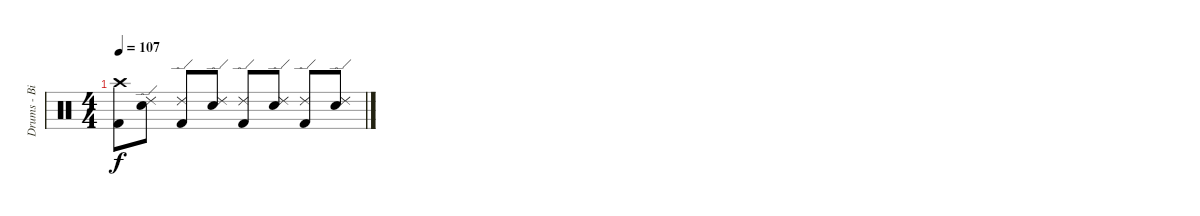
\track ("Drums - Bill Stevenson" "Drums - Bi") {instrument percussion}
\staff {score}
\articulation defaults
\ts (4 4)
\tempo 107
\clef neutral
\ks c
("Crash high (hit)" "Kick (hit) 2").8{dy f volume 0} ("Ride (edge) 2" "Electric Snare (hit)").8 ("Ride (edge) 2" "Kick (hit) 2").8 ("Ride (edge) 2" "Electric Snare (hit)").8 ("Ride (edge) 2" "Kick (hit) 2").8 ("Ride (edge) 2" "Electric Snare (hit)").8 ("Ride (edge) 2" "Kick (hit) 2").8 ("Ride (edge) 2" "Electric Snare (hit)").8
